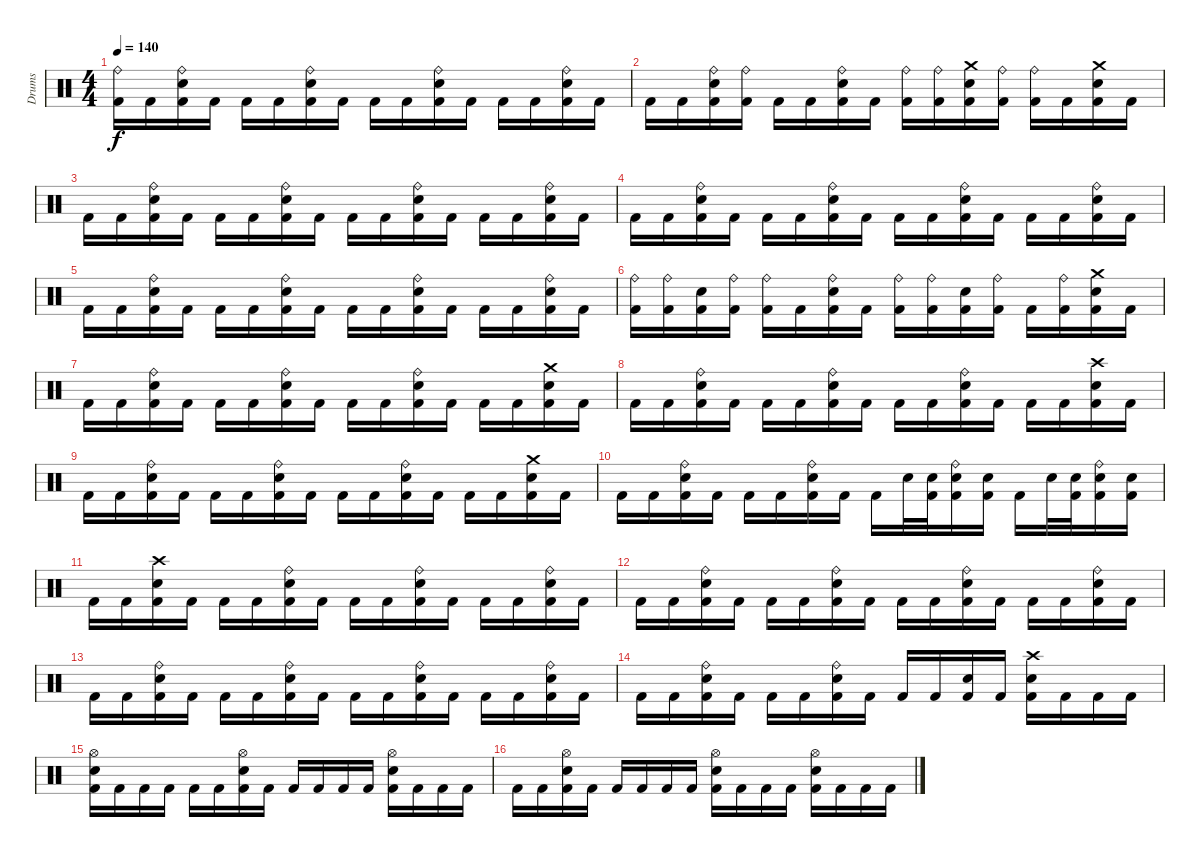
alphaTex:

\track ("Drums" "Drums") {instrument percussion}
\staff {score}
\articulation defaults
\ts (4 4)
\tempo 140
\clef neutral
\ks c
("Ride (bell)" "Kick (hit) 2").16{dy f} "Kick (hit) 2".16 ("Electric Snare (hit)" "Ride (bell)" "Kick (hit) 2").16 "Kick (hit) 2".16 "Kick (hit) 2".16 "Kick (hit) 2".16 ("Electric Snare (hit)" "Ride (bell)" "Kick (hit) 2").16 "Kick (hit) 2".16 "Kick (hit) 2".16 "Kick (hit) 2".16 ("Electric Snare (hit)" "Ride (bell)" "Kick (hit) 2").16 "Kick (hit) 2".16 "Kick (hit) 2".16 "Kick (hit) 2".16 ("Electric Snare (hit)" "Ride (bell)" "Kick (hit) 2").16 "Kick (hit) 2".16 |
"Kick (hit) 2".16 "Kick (hit) 2".16 ("Electric Snare (hit)" "Ride (bell)" "Kick (hit) 2").16 ("Ride (bell)" "Kick (hit) 2").16 "Kick (hit) 2".16 "Kick (hit) 2".16 ("Electric Snare (hit)" "Ride (bell)" "Kick (hit) 2").16 "Kick (hit) 2".16 ("Ride (bell)" "Kick (hit) 2").16 ("Ride (bell)" "Kick (hit) 2").16 ("Crash medium (hit)" "Electric Snare (hit)" "Kick (hit) 2").16 ("Ride (bell)" "Kick (hit) 2").16 ("Ride (bell)" "Kick (hit) 2").16 "Kick (hit) 2".16 ("Crash medium (hit)" "Electric Snare (hit)" "Kick (hit) 2").16 "Kick (hit) 2".16 |
"Kick (hit) 2".16 "Kick (hit) 2".16 ("Electric Snare (hit)" "Ride (bell)" "Kick (hit) 2").16 "Kick (hit) 2".16 "Kick (hit) 2".16 "Kick (hit) 2".16 ("Electric Snare (hit)" "Ride (bell)" "Kick (hit) 2").16 "Kick (hit) 2".16 "Kick (hit) 2".16 "Kick (hit) 2".16 ("Electric Snare (hit)" "Ride (bell)" "Kick (hit) 2").16 "Kick (hit) 2".16 "Kick (hit) 2".16 "Kick (hit) 2".16 ("Electric Snare (hit)" "Ride (bell)" "Kick (hit) 2").16 "Kick (hit) 2".16 |
"Kick (hit) 2".16 "Kick (hit) 2".16 ("Electric Snare (hit)" "Ride (bell)" "Kick (hit) 2").16 "Kick (hit) 2".16 "Kick (hit) 2".16 "Kick (hit) 2".16 ("Electric Snare (hit)" "Ride (bell)" "Kick (hit) 2").16 "Kick (hit) 2".16 "Kick (hit) 2".16 "Kick (hit) 2".16 ("Electric Snare (hit)" "Ride (bell)" "Kick (hit) 2").16 "Kick (hit) 2".16 "Kick (hit) 2".16 "Kick (hit) 2".16 ("Electric Snare (hit)" "Ride (bell)" "Kick (hit) 2").16 "Kick (hit) 2".16 |
"Kick (hit) 2".16 "Kick (hit) 2".16 ("Electric Snare (hit)" "Ride (bell)" "Kick (hit) 2").16 "Kick (hit) 2".16 "Kick (hit) 2".16 "Kick (hit) 2".16 ("Electric Snare (hit)" "Ride (bell)" "Kick (hit) 2").16 "Kick (hit) 2".16 "Kick (hit) 2".16 "Kick (hit) 2".16 ("Electric Snare (hit)" "Ride (bell)" "Kick (hit) 2").16 "Kick (hit) 2".16 "Kick (hit) 2".16 "Kick (hit) 2".16 ("Electric Snare (hit)" "Ride (bell)" "Kick (hit) 2").16 "Kick (hit) 2".16 |
("Ride (bell)" "Kick (hit) 2").16 ("Ride (bell)" "Kick (hit) 2").16 ("Electric Snare (hit)" "Kick (hit) 2").16 ("Ride (bell)" "Kick (hit) 2").16 ("Ride (bell)" "Kick (hit) 2").16 "Kick (hit) 2".16 ("Electric Snare (hit)" "Ride (bell)" "Kick (hit) 2").16 "Kick (hit) 2".16 ("Ride (bell)" "Kick (hit) 2").16 ("Ride (bell)" "Kick (hit) 2").16 ("Electric Snare (hit)" "Kick (hit) 2").16 ("Ride (bell)" "Kick (hit) 2").16 "Kick (hit) 2".16 ("Ride (bell)" "Kick (hit) 2").16 ("Crash medium (hit)" "Electric Snare (hit)" "Kick (hit) 2").16 "Kick (hit) 2".16 |
"Kick (hit) 2".16 "Kick (hit) 2".16 ("Electric Snare (hit)" "Ride (bell)" "Kick (hit) 2").16 "Kick (hit) 2".16 "Kick (hit) 2".16 "Kick (hit) 2".16 ("Electric Snare (hit)" "Ride (bell)" "Kick (hit) 2").16 "Kick (hit) 2".16 "Kick (hit) 2".16 "Kick (hit) 2".16 ("Electric Snare (hit)" "Ride (bell)" "Kick (hit) 2").16 "Kick (hit) 2".16 "Kick (hit) 2".16 "Kick (hit) 2".16 ("Crash medium (hit)" "Electric Snare (hit)" "Kick (hit) 2").16 "Kick (hit) 2".16 |
"Kick (hit) 2".16 "Kick (hit) 2".16 ("Electric Snare (hit)" "Ride (bell)" "Kick (hit) 2").16 "Kick (hit) 2".16 "Kick (hit) 2".16 "Kick (hit) 2".16 ("Electric Snare (hit)" "Ride (bell)" "Kick (hit) 2").16 "Kick (hit) 2".16 "Kick (hit) 2".16 "Kick (hit) 2".16 ("Electric Snare (hit)" "Ride (bell)" "Kick (hit) 2").16 "Kick (hit) 2".16 "Kick (hit) 2".16 "Kick (hit) 2".16 ("Crash high (hit)" "Electric Snare (hit)" "Kick (hit) 2").16 "Kick (hit) 2".16 |
"Kick (hit) 2".16 "Kick (hit) 2".16 ("Electric Snare (hit)" "Ride (bell)" "Kick (hit) 2").16 "Kick (hit) 2".16 "Kick (hit) 2".16 "Kick (hit) 2".16 ("Electric Snare (hit)" "Ride (bell)" "Kick (hit) 2").16 "Kick (hit) 2".16 "Kick (hit) 2".16 "Kick (hit) 2".16 ("Electric Snare (hit)" "Ride (bell)" "Kick (hit) 2").16 "Kick (hit) 2".16 "Kick (hit) 2".16 "Kick (hit) 2".16 ("Crash medium (hit)" "Electric Snare (hit)" "Kick (hit) 2").16 "Kick (hit) 2".16 |
"Kick (hit) 2".16 "Kick (hit) 2".16 ("Electric Snare (hit)" "Ride (bell)" "Kick (hit) 2").16 "Kick (hit) 2".16 "Kick (hit) 2".16 "Kick (hit) 2".16 ("Electric Snare (hit)" "Ride (bell)" "Kick (hit) 2").16 "Kick (hit) 2".16 "Kick (hit) 2".16 "Electric Snare (hit)".32 ("Electric Snare (hit)" "Kick (hit) 2").32 ("Electric Snare (hit)" "Ride (bell)" "Kick (hit) 2").16 ("Electric Snare (hit)" "Kick (hit) 2").16 "Kick (hit) 2".16 "Electric Snare (hit)".32 ("Electric Snare (hit)" "Kick (hit) 2").32 ("Electric Snare (hit)" "Ride (bell)" "Kick (hit) 2").16 ("Electric Snare (hit)" "Kick (hit) 2").16 |
"Kick (hit) 2".16 "Kick (hit) 2".16 ("Crash high (hit)" "Electric Snare (hit)" "Kick (hit) 2").16 "Kick (hit) 2".16 "Kick (hit) 2".16 "Kick (hit) 2".16 ("Electric Snare (hit)" "Ride (bell)" "Kick (hit) 2").16 "Kick (hit) 2".16 "Kick (hit) 2".16 "Kick (hit) 2".16 ("Electric Snare (hit)" "Ride (bell)" "Kick (hit) 2").16 "Kick (hit) 2".16 "Kick (hit) 2".16 "Kick (hit) 2".16 ("Electric Snare (hit)" "Ride (bell)" "Kick (hit) 2").16 "Kick (hit) 2".16 |
"Kick (hit) 2".16 "Kick (hit) 2".16 ("Electric Snare (hit)" "Ride (bell)" "Kick (hit) 2").16 "Kick (hit) 2".16 "Kick (hit) 2".16 "Kick (hit) 2".16 ("Electric Snare (hit)" "Ride (bell)" "Kick (hit) 2").16 "Kick (hit) 2".16 "Kick (hit) 2".16 "Kick (hit) 2".16 ("Electric Snare (hit)" "Ride (bell)" "Kick (hit) 2").16 "Kick (hit) 2".16 "Kick (hit) 2".16 "Kick (hit) 2".16 ("Electric Snare (hit)" "Ride (bell)" "Kick (hit) 2").16 "Kick (hit) 2".16 |
"Kick (hit) 2".16 "Kick (hit) 2".16 ("Electric Snare (hit)" "Ride (bell)" "Kick (hit) 2").16 "Kick (hit) 2".16 "Kick (hit) 2".16 "Kick (hit) 2".16 ("Electric Snare (hit)" "Ride (bell)" "Kick (hit) 2").16 "Kick (hit) 2".16 "Kick (hit) 2".16 "Kick (hit) 2".16 ("Electric Snare (hit)" "Ride (bell)" "Kick (hit) 2").16 "Kick (hit) 2".16 "Kick (hit) 2".16 "Kick (hit) 2".16 ("Electric Snare (hit)" "Ride (bell)" "Kick (hit) 2").16 "Kick (hit) 2".16 |
"Kick (hit) 2".16 "Kick (hit) 2".16 ("Electric Snare (hit)" "Ride (bell)" "Kick (hit) 2").16 "Kick (hit) 2".16 "Kick (hit) 2".16 "Kick (hit) 2".16 ("Electric Snare (hit)" "Ride (bell)" "Kick (hit) 2").16 "Kick (hit) 2".16 "Kick (hit) 2".16 "Kick (hit) 2".16 ("Electric Snare (hit)" "Kick (hit) 2").16 "Kick (hit) 2".16 ("Crash high (hit)" "Electric Snare (hit)" "Kick (hit) 2").16 "Kick (hit) 2".16 "Kick (hit) 2".16 "Kick (hit) 2".16 |
("Electric Snare (hit)" "Hi-Hat (open)" "Kick (hit) 2").16 "Kick (hit) 2".16 "Kick (hit) 2".16 "Kick (hit) 2".16 "Kick (hit) 2".16 "Kick (hit) 2".16 ("Electric Snare (hit)" "Hi-Hat (open)" "Kick (hit) 2").16 "Kick (hit) 2".16 "Kick (hit) 2".16 "Kick (hit) 2".16 "Kick (hit) 2".16 "Kick (hit) 2".16 ("Electric Snare (hit)" "Hi-Hat (open)" "Kick (hit) 2").16 "Kick (hit) 2".16 "Kick (hit) 2".16 "Kick (hit) 2".16 |
"Kick (hit) 2".16 "Kick (hit) 2".16 ("Electric Snare (hit)" "Hi-Hat (open)" "Kick (hit) 2").16 "Kick (hit) 2".16 "Kick (hit) 2".16 "Kick (hit) 2".16 "Kick (hit) 2".16 "Kick (hit) 2".16 ("Electric Snare (hit)" "Hi-Hat (open)" "Kick (hit) 2").16 "Kick (hit) 2".16 "Kick (hit) 2".16 "Kick (hit) 2".16 ("Electric Snare (hit)" "Hi-Hat (open)" "Kick (hit) 2").16 "Kick (hit) 2".16 "Kick (hit) 2".16 "Kick (hit) 2".16
